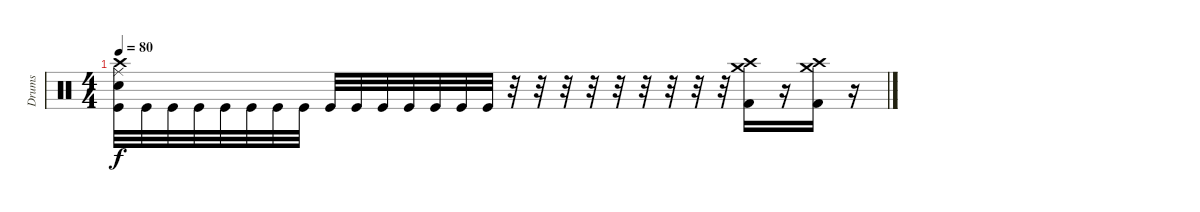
\track ("Drums" "Drums") {instrument percussion}
\staff {score}
\articulation defaults
\ts (4 4)
\tempo 80
\clef neutral
\ks c
("Crash high (hit)" "Ride (middle)" "Electric Snare (hit)" "Kick (hit)").32{dy f} "Kick (hit)".32 "Kick (hit)".32 "Kick (hit)".32 "Kick (hit)".32 "Kick (hit)".32 "Kick (hit)".32 "Kick (hit)".32 "Kick (hit)".32 "Kick (hit)".32 "Kick (hit)".32 "Kick (hit)".32 "Kick (hit)".32 "Kick (hit)".32 "Kick (hit)".32 r.32 r.32 r.32 r.32 r.32 r.32 r.32 r.32 r.32 ("Crash high (hit)" "Crash medium (hit)" "Kick (hit) 2").16 r.16 ("Crash high (hit)" "Crash medium (hit)" "Kick (hit) 2").16 r.16
